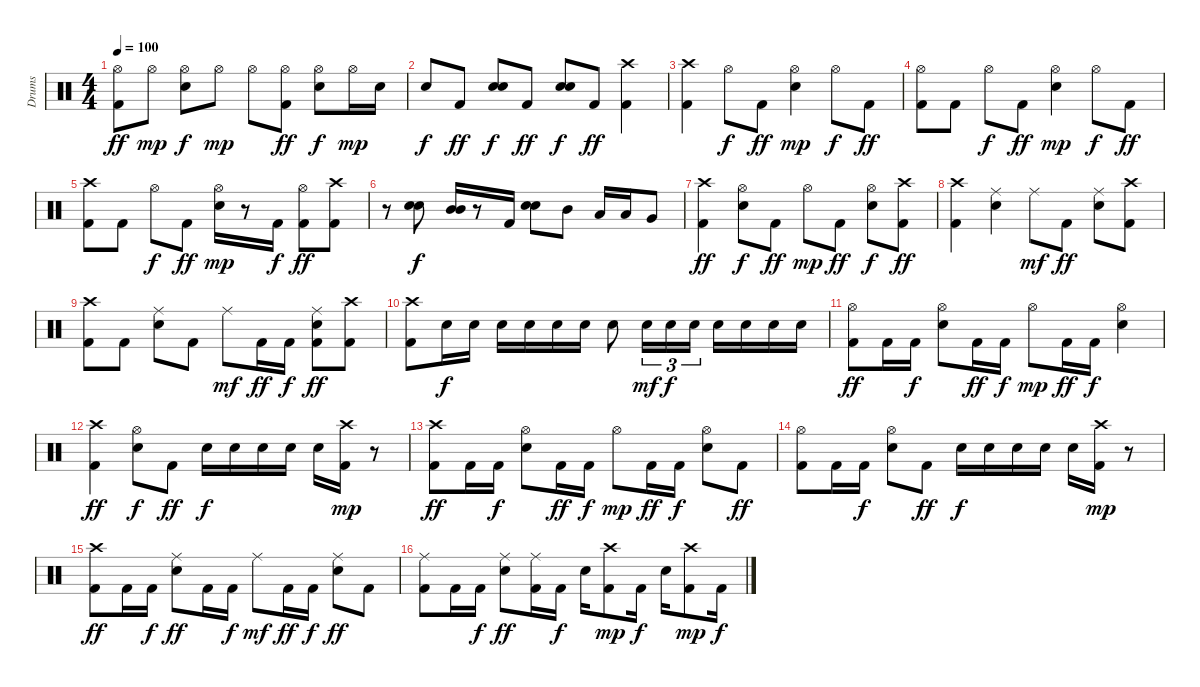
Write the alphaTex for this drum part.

\track ("Drums" "Drums") {instrument percussion}
\staff {score}
\articulation defaults
\ts (4 4)
\tempo 100
\clef neutral
\ks c
("Hi-Hat (open)" "Kick (hit) 2").8{dy ff} "Hi-Hat (open)".8{dy mp} ("Hi-Hat (open)" "Electric Snare (hit)").8{dy f} "Hi-Hat (open)".8{dy mp} "Hi-Hat (open)".8 ("Hi-Hat (open)" "Kick (hit) 2").8{dy ff} ("Hi-Hat (open)" "Electric Snare (hit)").8{dy f} "Hi-Hat (open)".16{dy mp} "Electric Snare (hit)".16 |
"Electric Snare (hit)".8{dy f} "Kick (hit) 2".8{dy ff} ("Electric Snare (hit)" "Electric Snare (hit)").8{dy f} "Kick (hit) 2".8{dy ff} ("Electric Snare (hit)" "Electric Snare (hit)").8{dy f} "Kick (hit) 2".8{dy ff} ("Crash high (hit)" "Kick (hit) 2").4 |
("Crash high (hit)" "Kick (hit) 2").4 "Hi-Hat (open)".8{dy f} "Kick (hit) 2".8{dy ff} ("Hi-Hat (open)" "Electric Snare (hit)").4{dy mp} "Hi-Hat (open)".8{dy f} "Kick (hit) 2".8{dy ff} |
("Hi-Hat (open)" "Kick (hit) 2").8 "Kick (hit) 2".8 "Hi-Hat (open)".8{dy f} "Kick (hit) 2".8{dy ff} ("Hi-Hat (open)" "Electric Snare (hit)").4{dy mp} "Hi-Hat (open)".8{dy f} "Kick (hit) 2".8{dy ff} |
("Crash high (hit)" "Kick (hit) 2").8 "Kick (hit) 2".8 "Hi-Hat (open)".8{dy f} "Kick (hit) 2".8{dy ff} ("Hi-Hat (open)" "Electric Snare (hit)").16{dy mp} r.8 "Kick (hit) 2".16{dy f} ("Hi-Hat (open)" "Kick (hit) 2").8{dy ff} ("Crash high (hit)" "Kick (hit) 2").8 |
r.8 ("Electric Snare (hit)" "Electric Snare (hit)").8{dy f} ("Mid Tom (hit)" "Mid Tom (hit)").16 r.8 "Kick (hit) 2".16 ("Electric Snare (hit)" "Electric Snare (hit)").8 "Mid Tom (hit)".8 "Low Tom (hit)".16 "Low Tom (hit)".16 "Very Low Tom (hit)".8 |
("Crash high (hit)" "Kick (hit) 2").4{dy ff} ("Hi-Hat (open)" "Electric Snare (hit)").8{dy f} "Kick (hit) 2".8{dy ff} "Hi-Hat (open)".8{dy mp} "Kick (hit) 2".8{dy ff} ("Hi-Hat (open)" "Electric Snare (hit)").8{dy f} ("Crash high (hit)" "Kick (hit) 2").8{dy ff} |
("Crash high (hit)" "Kick (hit) 2").4 ("Ride (middle)" "Electric Snare (hit)").4 "Ride (middle)".8{dy mf} "Kick (hit) 2".8{dy ff} ("Ride (middle)" "Electric Snare (hit)").8 ("Crash high (hit)" "Kick (hit) 2").8 |
("Crash high (hit)" "Kick (hit) 2").8 "Kick (hit) 2".8 ("Ride (middle)" "Electric Snare (hit)").8 "Kick (hit) 2".8 "Ride (middle)".8{dy mf} "Kick (hit) 2".16{dy ff} "Kick (hit) 2".16{dy f} ("Ride (middle)" "Electric Snare (hit)" "Kick (hit) 2").8{dy ff} ("Crash high (hit)" "Kick (hit) 2").8 |
("Crash high (hit)" "Kick (hit) 2").8 "Electric Snare (hit)".16{dy f} "Electric Snare (hit)".16 "Electric Snare (hit)".16 "Electric Snare (hit)".16 "Electric Snare (hit)".16 "Electric Snare (hit)".16 "Electric Snare (hit)".8 "Electric Snare (hit)".16{tu (3 2) dy mf} "Electric Snare (hit)".16{tu (3 2) dy f} "Electric Snare (hit)".16{tu (3 2)} "Electric Snare (hit)".16 "Electric Snare (hit)".16 "Electric Snare (hit)".16 "Electric Snare (hit)".16 |
("Hi-Hat (open)" "Kick (hit) 2").8{dy ff} "Kick (hit) 2".16 "Kick (hit) 2".16{dy f} ("Hi-Hat (open)" "Electric Snare (hit)").8 "Kick (hit) 2".16{dy ff} "Kick (hit) 2".16{dy f} "Hi-Hat (open)".8{dy mp} "Kick (hit) 2".16{dy ff} "Kick (hit) 2".16{dy f} ("Hi-Hat (open)" "Electric Snare (hit)").4 |
("Crash high (hit)" "Kick (hit) 2").4{dy ff} ("Hi-Hat (open)" "Electric Snare (hit)").8{dy f} "Kick (hit) 2".8{dy ff} "Electric Snare (hit)".16{dy f} "Electric Snare (hit)".16 "Electric Snare (hit)".16 "Electric Snare (hit)".16 "Electric Snare (hit)".16 ("Crash high (hit)" "Kick (hit) 2").16{dy mp} r.8 |
("Crash high (hit)" "Kick (hit) 2").8{dy ff} "Kick (hit) 2".16 "Kick (hit) 2".16{dy f} ("Hi-Hat (open)" "Electric Snare (hit)").8 "Kick (hit) 2".16{dy ff} "Kick (hit) 2".16{dy f} "Hi-Hat (open)".8{dy mp} "Kick (hit) 2".16{dy ff} "Kick (hit) 2".16{dy f} ("Hi-Hat (open)" "Electric Snare (hit)").8 "Kick (hit) 2".8{dy ff} |
("Hi-Hat (open)" "Kick (hit) 2").8 "Kick (hit) 2".16 "Kick (hit) 2".16{dy f} ("Hi-Hat (open)" "Electric Snare (hit)").8 "Kick (hit) 2".8{dy ff} "Electric Snare (hit)".16{dy f} "Electric Snare (hit)".16 "Electric Snare (hit)".16 "Electric Snare (hit)".16 "Electric Snare (hit)".16 ("Crash high (hit)" "Kick (hit) 2").16{dy mp} r.8 |
("Crash high (hit)" "Kick (hit) 2").8{dy ff} "Kick (hit) 2".16 "Kick (hit) 2".16{dy f} ("Ride (middle)" "Electric Snare (hit)").8{dy ff} "Kick (hit) 2".16 "Kick (hit) 2".16{dy f} "Ride (middle)".8{dy mf} "Kick (hit) 2".16{dy ff} "Kick (hit) 2".16{dy f} ("Ride (middle)" "Electric Snare (hit)").8{dy ff} "Kick (hit) 2".8 |
("Ride (middle)" "Kick (hit) 2").8 "Kick (hit) 2".16 "Kick (hit) 2".16{dy f} ("Ride (middle)" "Electric Snare (hit)").8{dy ff} ("Ride (middle)" "Kick (hit) 2").16 "Kick (hit) 2".16{dy f} "Electric Snare (hit)".16 ("Crash high (hit)" "Kick (hit) 2").8{dy mp} "Kick (hit) 2".16{dy f} "Electric Snare (hit)".16 ("Crash high (hit)" "Kick (hit) 2").8{dy mp} "Kick (hit) 2".16{dy f}
